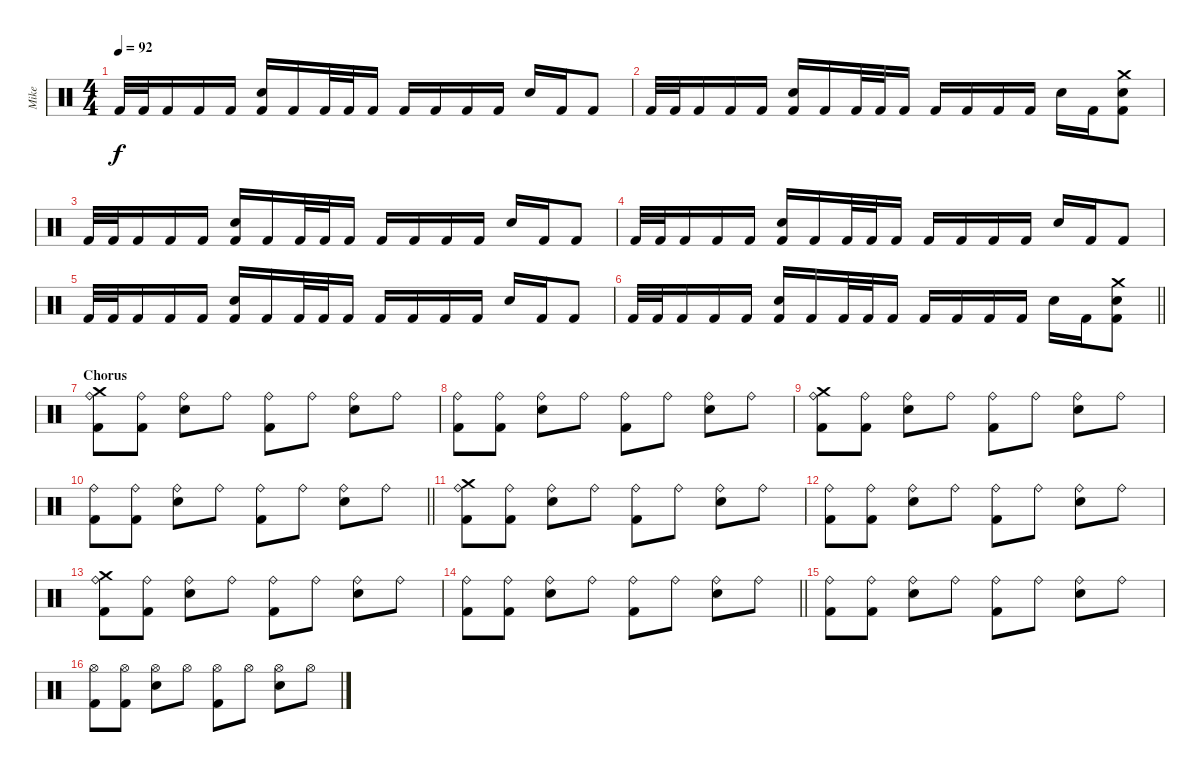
\track ("Mike" "Mike") {instrument percussion}
\staff {score}
\articulation defaults
\ts (4 4)
\tempo 92
\clef neutral
\ks c "Kick (hit) 2".32{dy f} "Kick (hit) 2".32 "Kick (hit) 2".16 "Kick (hit) 2".16 "Kick (hit) 2".16
("Kick (hit) 2" "Electric Snare (hit)").16 "Kick (hit) 2".16 "Kick (hit) 2".32 "Kick (hit) 2".32 "Kick (hit) 2".16 "Kick (hit) 2".16 "Kick (hit) 2".16 "Kick (hit) 2".16 "Kick (hit) 2".16 "Electric Snare (hit)".16 "Kick (hit) 2".16 "Kick (hit) 2".8 |
"Kick (hit) 2".32 "Kick (hit) 2".32 "Kick (hit) 2".16 "Kick (hit) 2".16 "Kick (hit) 2".16 ("Kick (hit) 2" "Electric Snare (hit)").16 "Kick (hit) 2".16 "Kick (hit) 2".32 "Kick (hit) 2".32 "Kick (hit) 2".16 "Kick (hit) 2".16 "Kick (hit) 2".16 "Kick (hit) 2".16 "Kick (hit) 2".16 "Electric Snare (hit)".16 "Kick (hit) 2".16 ("Kick (hit) 2" "Electric Snare (hit)" "Crash medium (hit)").8 |
"Kick (hit) 2".32 "Kick (hit) 2".32 "Kick (hit) 2".16 "Kick (hit) 2".16 "Kick (hit) 2".16 ("Kick (hit) 2" "Electric Snare (hit)").16 "Kick (hit) 2".16 "Kick (hit) 2".32 "Kick (hit) 2".32 "Kick (hit) 2".16 "Kick (hit) 2".16 "Kick (hit) 2".16 "Kick (hit) 2".16 "Kick (hit) 2".16 "Electric Snare (hit)".16 "Kick (hit) 2".16 "Kick (hit) 2".8 |
"Kick (hit) 2".32 "Kick (hit) 2".32 "Kick (hit) 2".16 "Kick (hit) 2".16 "Kick (hit) 2".16 ("Kick (hit) 2" "Electric Snare (hit)").16 "Kick (hit) 2".16 "Kick (hit) 2".32 "Kick (hit) 2".32 "Kick (hit) 2".16 "Kick (hit) 2".16 "Kick (hit) 2".16 "Kick (hit) 2".16 "Kick (hit) 2".16 "Electric Snare (hit)".16 "Kick (hit) 2".16 "Kick (hit) 2".8 |
"Kick (hit) 2".32 "Kick (hit) 2".32 "Kick (hit) 2".16 "Kick (hit) 2".16 "Kick (hit) 2".16 ("Kick (hit) 2" "Electric Snare (hit)").16 "Kick (hit) 2".16 "Kick (hit) 2".32 "Kick (hit) 2".32 "Kick (hit) 2".16 "Kick (hit) 2".16 "Kick (hit) 2".16 "Kick (hit) 2".16 "Kick (hit) 2".16 "Electric Snare (hit)".16 "Kick (hit) 2".16 "Kick (hit) 2".8 |
\barLineRight lightlight "Kick (hit) 2".32 "Kick (hit) 2".32 "Kick (hit) 2".16 "Kick (hit) 2".16 "Kick (hit) 2".16
("Kick (hit) 2" "Electric Snare (hit)").16 "Kick (hit) 2".16 "Kick (hit) 2".32 "Kick (hit) 2".32 "Kick (hit) 2".16 "Kick (hit) 2".16 "Kick (hit) 2".16 "Kick (hit) 2".16 "Kick (hit) 2".16 "Electric Snare (hit)".16 "Kick (hit) 2".16 ("Kick (hit) 2" "Electric Snare (hit)" "Crash medium (hit)").8 |
\section ("" "Chorus")
("Kick (hit) 2" "Ride (bell)" "Crash medium (hit)").8 ("Kick (hit) 2" "Ride (bell)").8 ("Electric Snare (hit)" "Ride (bell)").8 "Ride (bell)".8 ("Kick (hit) 2" "Ride (bell)").8 "Ride (bell)".8 ("Electric Snare (hit)" "Ride (bell)").8 "Ride (bell)".8 |
("Kick (hit) 2" "Ride (bell)").8 ("Kick (hit) 2" "Ride (bell)").8 ("Electric Snare (hit)" "Ride (bell)").8 "Ride (bell)".8 ("Kick (hit) 2" "Ride (bell)").8 "Ride (bell)".8 ("Electric Snare (hit)" "Ride (bell)").8 "Ride (bell)".8 |
("Kick (hit) 2" "Ride (bell)" "Crash medium (hit)").8 ("Kick (hit) 2" "Ride (bell)").8 ("Electric Snare (hit)" "Ride (bell)").8 "Ride (bell)".8 ("Kick (hit) 2" "Ride (bell)").8 "Ride (bell)".8 ("Electric Snare (hit)" "Ride (bell)").8 "Ride (bell)".8 |
\barLineRight lightlight
("Kick (hit) 2" "Ride (bell)").8 ("Kick (hit) 2" "Ride (bell)").8 ("Electric Snare (hit)" "Ride (bell)").8 "Ride (bell)".8 ("Kick (hit) 2" "Ride (bell)").8 "Ride (bell)".8 ("Electric Snare (hit)" "Ride (bell)").8 "Ride (bell)".8 |
("Kick (hit) 2" "Ride (bell)" "Crash medium (hit)").8 ("Kick (hit) 2" "Ride (bell)").8 ("Electric Snare (hit)" "Ride (bell)").8 "Ride (bell)".8 ("Kick (hit) 2" "Ride (bell)").8 "Ride (bell)".8 ("Electric Snare (hit)" "Ride (bell)").8 "Ride (bell)".8 |
("Kick (hit) 2" "Ride (bell)").8 ("Kick (hit) 2" "Ride (bell)").8 ("Electric Snare (hit)" "Ride (bell)").8 "Ride (bell)".8 ("Kick (hit) 2" "Ride (bell)").8 "Ride (bell)".8 ("Electric Snare (hit)" "Ride (bell)").8 "Ride (bell)".8 |
("Kick (hit) 2" "Ride (bell)" "Crash medium (hit)").8 ("Kick (hit) 2" "Ride (bell)").8 ("Electric Snare (hit)" "Ride (bell)").8 "Ride (bell)".8 ("Kick (hit) 2" "Ride (bell)").8 "Ride (bell)".8 ("Electric Snare (hit)" "Ride (bell)").8 "Ride (bell)".8 |
\barLineRight lightlight
("Kick (hit) 2" "Ride (bell)").8 ("Kick (hit) 2" "Ride (bell)").8 ("Electric Snare (hit)" "Ride (bell)").8 "Ride (bell)".8 ("Kick (hit) 2" "Ride (bell)").8 "Ride (bell)".8 ("Electric Snare (hit)" "Ride (bell)").8 "Ride (bell)".8 |
("Kick (hit) 2" "Ride (bell)").8 ("Kick (hit) 2" "Ride (bell)").8 ("Electric Snare (hit)" "Ride (bell)").8 "Ride (bell)".8 ("Kick (hit) 2" "Ride (bell)").8 "Ride (bell)".8 ("Electric Snare (hit)" "Ride (bell)").8 "Ride (bell)".8 |
("Kick (hit) 2" "Hi-Hat (open)").8 ("Kick (hit) 2" "Hi-Hat (open)").8 ("Electric Snare (hit)" "Hi-Hat (open)").8 "Hi-Hat (open)".8 ("Kick (hit) 2" "Hi-Hat (open)").8 "Hi-Hat (open)".8 ("Electric Snare (hit)" "Hi-Hat (open)").8 "Hi-Hat (open)".8
